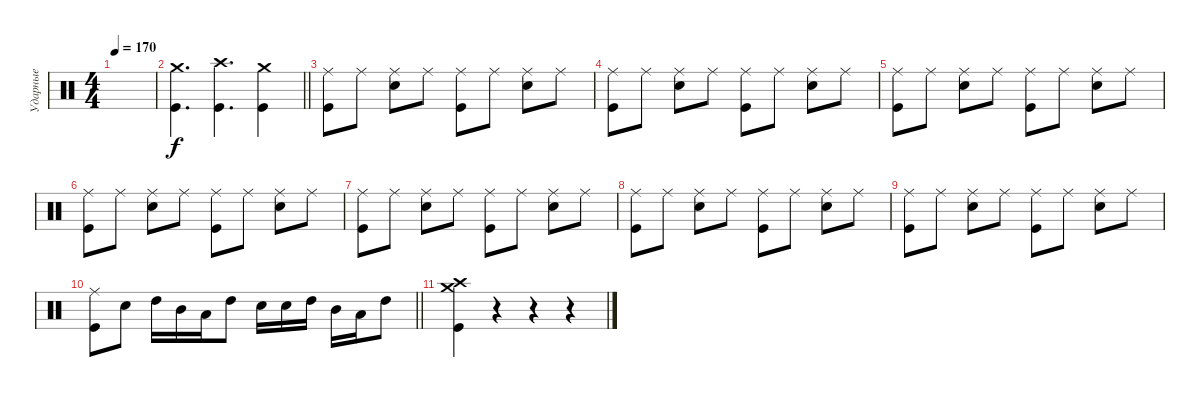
\track ("Ударные" "Ударные") {instrument percussion}
\staff {score}
\articulation defaults
\ts (4 4)
\tempo 170
\clef neutral
\ks c
|
\barLineRight lightlight
("Crash medium (hit)" "Kick (hit)").4{d} ("Crash high (hit)" "Kick (hit)").4{d} ("Crash medium (hit)" "Kick (hit)").4 |
("Ride (middle)" "Kick (hit)").8 "Ride (middle)".8 ("Ride (middle)" "Electric Snare (hit)").8 "Ride (middle)".8 ("Ride (middle)" "Kick (hit)").8 "Ride (middle)".8 ("Ride (middle)" "Electric Snare (hit)").8 "Ride (middle)".8 |
("Ride (middle)" "Kick (hit)").8 "Ride (middle)".8 ("Ride (middle)" "Electric Snare (hit)").8 "Ride (middle)".8 ("Ride (middle)" "Kick (hit)").8 "Ride (middle)".8 ("Ride (middle)" "Electric Snare (hit)").8 "Ride (middle)".8 |
("Ride (middle)" "Kick (hit)").8 "Ride (middle)".8 ("Ride (middle)" "Electric Snare (hit)").8 "Ride (middle)".8 ("Ride (middle)" "Kick (hit)").8 "Ride (middle)".8 ("Ride (middle)" "Electric Snare (hit)").8 "Ride (middle)".8 |
("Ride (middle)" "Kick (hit)").8 "Ride (middle)".8 ("Ride (middle)" "Electric Snare (hit)").8 "Ride (middle)".8 ("Ride (middle)" "Kick (hit)").8 "Ride (middle)".8 ("Ride (middle)" "Electric Snare (hit)").8 "Ride (middle)".8 |
("Ride (middle)" "Kick (hit)").8 "Ride (middle)".8 ("Ride (middle)" "Electric Snare (hit)").8 "Ride (middle)".8 ("Ride (middle)" "Kick (hit)").8 "Ride (middle)".8 ("Ride (middle)" "Electric Snare (hit)").8 "Ride (middle)".8 |
("Ride (middle)" "Kick (hit)").8 "Ride (middle)".8 ("Ride (middle)" "Electric Snare (hit)").8 "Ride (middle)".8 ("Ride (middle)" "Kick (hit)").8 "Ride (middle)".8 ("Ride (middle)" "Electric Snare (hit)").8 "Ride (middle)".8 |
("Ride (middle)" "Kick (hit)").8 "Ride (middle)".8 ("Ride (middle)" "Electric Snare (hit)").8 "Ride (middle)".8 ("Ride (middle)" "Kick (hit)").8 "Ride (middle)".8 ("Ride (middle)" "Electric Snare (hit)").8 "Ride (middle)".8 |
\barLineRight lightlight
("Ride (middle)" "Kick (hit)").8 "Electric Snare (hit)".8 "High Tom (hit)".16 "Mid Tom (hit)".16 "Low Tom (hit)".16 "High Tom (hit)".8 "Electric Snare (hit)".16 "Electric Snare (hit)".16 "High Tom (hit)".16 "Mid Tom (hit)".16 "Low Tom (hit)".16 "High Tom (hit)".8 |
("Crash medium (hit)" "Crash high (hit)" "Kick (hit)").4 r.4 r.4 r.4
